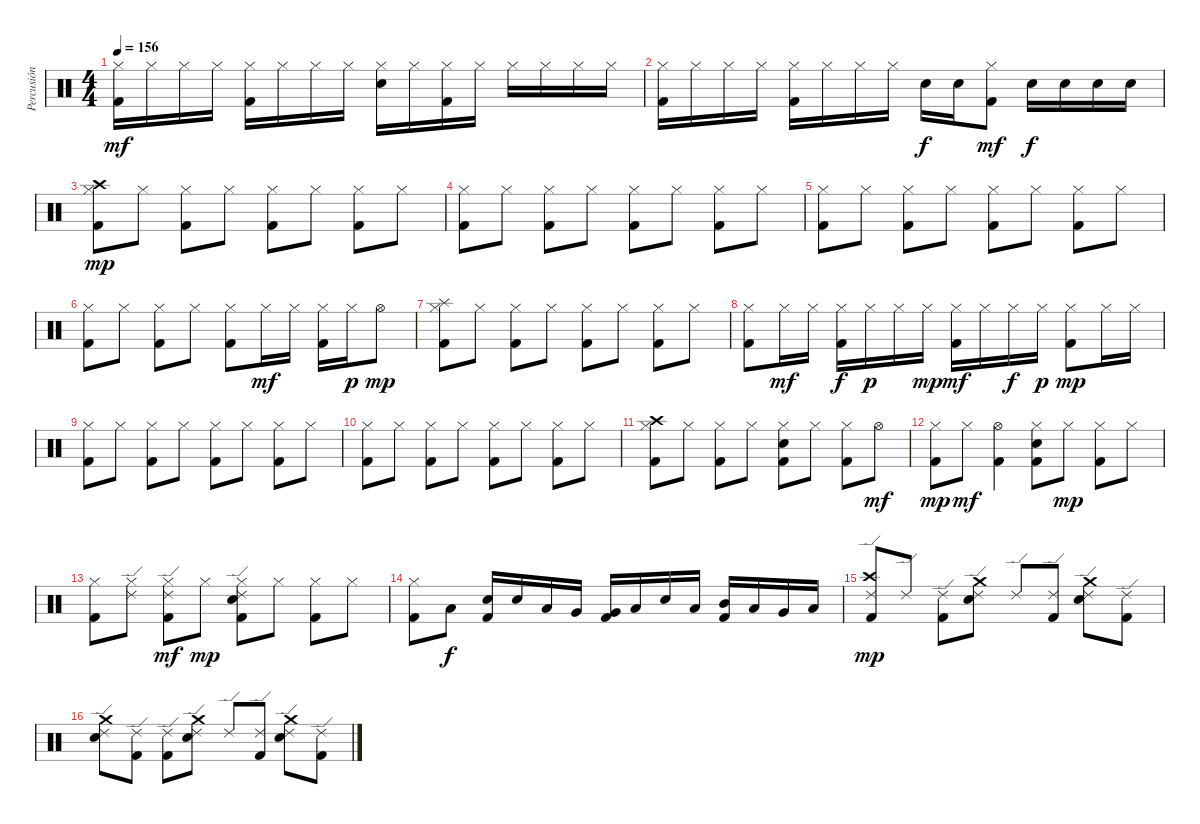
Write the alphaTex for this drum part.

\track ("Percusión" "Percusión") {instrument percussion}
\staff {score}
\articulation defaults
\ts (4 4)
\tempo 156
\clef neutral
\ks c
("Hi-Hat (closed)" "Kick (hit) 2").16{dy mf} "Hi-Hat (closed)".16 "Hi-Hat (closed)".16 "Hi-Hat (closed)".16 ("Hi-Hat (closed)" "Kick (hit) 2").16 "Hi-Hat (closed)".16 "Hi-Hat (closed)".16 "Hi-Hat (closed)".16 ("Hi-Hat (closed)" "Electric Snare (hit)").16 "Hi-Hat (closed)".16 ("Hi-Hat (closed)" "Kick (hit) 2").16 "Hi-Hat (closed)".16 "Hi-Hat (closed)".16 "Hi-Hat (closed)".16 "Hi-Hat (closed)".16 "Hi-Hat (closed)".16 |
("Hi-Hat (closed)" "Kick (hit) 2").16 "Hi-Hat (closed)".16 "Hi-Hat (closed)".16 "Hi-Hat (closed)".16 ("Hi-Hat (closed)" "Kick (hit) 2").16 "Hi-Hat (closed)".16 "Hi-Hat (closed)".16 "Hi-Hat (closed)".16 "Electric Snare (hit)".16{dy f} "Electric Snare (hit)".16 ("Hi-Hat (closed)" "Kick (hit) 2").8{dy mf} "Electric Snare (hit)".16{dy f} "Electric Snare (hit)".16 "Electric Snare (hit)".16 "Electric Snare (hit)".16 |
("Crash high (hit)" "Hi-Hat (closed)" "Kick (hit) 2").8{dy mp} "Hi-Hat (closed)".8 ("Hi-Hat (closed)" "Kick (hit) 2").8 "Hi-Hat (closed)".8 ("Hi-Hat (closed)" "Kick (hit) 2").8 "Hi-Hat (closed)".8 ("Hi-Hat (closed)" "Kick (hit) 2").8 "Hi-Hat (closed)".8 |
("Hi-Hat (closed)" "Kick (hit) 2").8 "Hi-Hat (closed)".8 ("Hi-Hat (closed)" "Kick (hit) 2").8 "Hi-Hat (closed)".8 ("Hi-Hat (closed)" "Kick (hit) 2").8 "Hi-Hat (closed)".8 ("Hi-Hat (closed)" "Kick (hit) 2").8 "Hi-Hat (closed)".8 |
("Hi-Hat (closed)" "Kick (hit) 2").8 "Hi-Hat (closed)".8 ("Hi-Hat (closed)" "Kick (hit) 2").8 "Hi-Hat (closed)".8 ("Hi-Hat (closed)" "Kick (hit) 2").8 "Hi-Hat (closed)".8 ("Hi-Hat (closed)" "Kick (hit) 2").8 "Hi-Hat (closed)".8 |
("Hi-Hat (closed)" "Kick (hit) 2").8 "Hi-Hat (closed)".8 ("Hi-Hat (closed)" "Kick (hit) 2").8 "Hi-Hat (closed)".8 ("Hi-Hat (closed)" "Kick (hit) 2").8 "Hi-Hat (closed)".16{dy mf} "Hi-Hat (closed)".16 ("Hi-Hat (closed)" "Kick (hit) 2").16 "Hi-Hat (closed)".16{dy p} "Hi-Hat (open)".8{dy mp} |
("Splash (hit)" "Hi-Hat (closed)" "Kick (hit) 2").8 "Hi-Hat (closed)".8 ("Hi-Hat (closed)" "Kick (hit) 2").8 "Hi-Hat (closed)".8 ("Hi-Hat (closed)" "Kick (hit) 2").8 "Hi-Hat (closed)".8 ("Hi-Hat (closed)" "Kick (hit) 2").8 "Hi-Hat (closed)".8 |
("Hi-Hat (closed)" "Kick (hit) 2").8 "Hi-Hat (closed)".16{dy mf} "Hi-Hat (closed)".16 ("Hi-Hat (closed)" "Kick (hit) 2").16{dy f} "Hi-Hat (closed)".16{dy p} "Hi-Hat (closed)".16 "Hi-Hat (closed)".16{dy mp} ("Hi-Hat (closed)" "Kick (hit) 2").16{dy mf} "Hi-Hat (closed)".16 "Hi-Hat (closed)".16{dy f} "Hi-Hat (closed)".16{dy p} ("Hi-Hat (closed)" "Kick (hit) 2").8{dy mp} "Hi-Hat (closed)".16 "Hi-Hat (closed)".16 |
("Hi-Hat (closed)" "Kick (hit) 2").8 "Hi-Hat (closed)".8 ("Hi-Hat (closed)" "Kick (hit) 2").8 "Hi-Hat (closed)".8 ("Hi-Hat (closed)" "Kick (hit) 2").8 "Hi-Hat (closed)".8 ("Hi-Hat (closed)" "Kick (hit) 2").8 "Hi-Hat (closed)".8 |
("Hi-Hat (closed)" "Kick (hit) 2").8 "Hi-Hat (closed)".8 ("Hi-Hat (closed)" "Kick (hit) 2").8 "Hi-Hat (closed)".8 ("Hi-Hat (closed)" "Kick (hit) 2").8 "Hi-Hat (closed)".8 ("Hi-Hat (closed)" "Kick (hit) 2").8 "Hi-Hat (closed)".8 |
("Crash high (hit)" "Hi-Hat (closed)" "Kick (hit) 2").8 "Hi-Hat (closed)".8 ("Hi-Hat (closed)" "Kick (hit) 2").8 "Hi-Hat (closed)".8 ("Hi-Hat (closed)" "Kick (hit) 2" "Electric Snare (hit)").8 "Hi-Hat (closed)".8 ("Hi-Hat (closed)" "Kick (hit) 2").8 "Hi-Hat (open)".8{dy mf} |
("Hi-Hat (closed)" "Kick (hit) 2").8{dy mp} "Hi-Hat (closed)".8{dy mf} ("Hi-Hat (open)" "Kick (hit) 2").4 ("Hi-Hat (closed)" "Kick (hit) 2" "Electric Snare (hit)").8 "Hi-Hat (closed)".8{dy mp} ("Hi-Hat (closed)" "Kick (hit) 2").8 "Hi-Hat (closed)".8 |
("Hi-Hat (closed)" "Kick (hit) 2").8 ("Hi-Hat (closed)" "Ride (edge) 2").8 ("Hi-Hat (closed)" "Kick (hit) 2" "Ride (edge) 2").8{dy mf} "Hi-Hat (closed)".8{dy mp} ("Ride (edge) 2" "Hi-Hat (closed)" "Kick (hit) 2" "Electric Snare (hit)").8 "Hi-Hat (closed)".8 ("Hi-Hat (closed)" "Kick (hit) 2").8 "Hi-Hat (closed)".8 |
("Hi-Hat (closed)" "Kick (hit) 2").8 "Low Tom (hit)".8{dy f} ("Electric Snare (hit)" "Kick (hit) 2").16 "Electric Snare (hit)".16 "Low Tom (hit)".16 "Very Low Tom (hit)".16 ("Very Low Tom (hit)" "Kick (hit) 2").16 "Low Floor Tom (hit)".16 "Electric Snare (hit)".16 "Low Tom (hit)".16 ("Mid Tom (hit)" "Kick (hit) 2").16 "Low Tom (hit)".16 "Very Low Tom (hit)".16 "Low Floor Tom (hit)".16 |
("Crash high (hit)" "Ride (edge) 2" "Kick (hit) 2").8{dy mp} "Ride (edge) 2".8 ("Ride (edge) 2" "Kick (hit) 2").8 ("Crash medium (hit)" "Ride (edge) 2" "Electric Snare (hit)").8 "Ride (edge) 2".8 ("Ride (edge) 2" "Kick (hit) 2").8 ("Crash medium (hit)" "Ride (edge) 2" "Electric Snare (hit)").8 ("Ride (edge) 2" "Kick (hit) 2").8 |
("Crash medium (hit)" "Ride (edge) 2" "Electric Snare (hit)").8 ("Ride (edge) 2" "Kick (hit) 2").8 ("Ride (edge) 2" "Kick (hit) 2").8 ("Crash medium (hit)" "Ride (edge) 2" "Electric Snare (hit)").8 "Ride (edge) 2".8 ("Ride (edge) 2" "Kick (hit) 2").8 ("Crash medium (hit)" "Ride (edge) 2" "Electric Snare (hit)").8 ("Ride (edge) 2" "Kick (hit) 2").8
